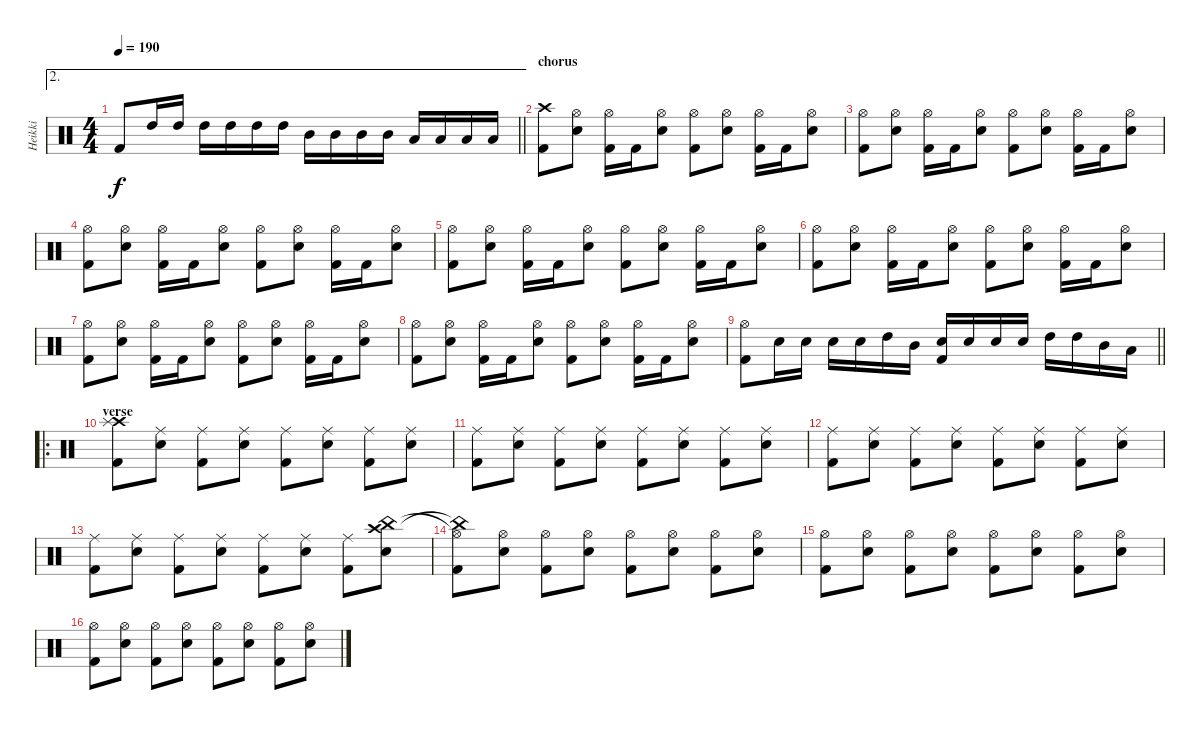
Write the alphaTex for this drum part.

\track ("Heikki" "Heikki") {instrument percussion}
\staff {score}
\articulation defaults
\ae 2
\ts (4 4)
\tempo 190
\clef neutral
\barLineRight lightlight
\ks c "Kick (hit) 2".8{dy f} "High Tom (hit)".16 "High Tom (hit)".16 "High Tom (hit)".16 "High Tom (hit)".16 "High Tom (hit)".16 "High Tom (hit)".16 "Mid Tom (hit)".16 "Mid Tom (hit)".16 "Mid Tom (hit)".16 "Mid Tom (hit)".16 "Low Tom (hit)".16 "Low Tom (hit)".16 "Low Tom (hit)".16 "Low Tom (hit)".16
|
\section ("" "chorus")
("Crash high (hit)" "Kick (hit) 2").8 ("Hi-Hat (open)" "Electric Snare (hit)").8 ("Hi-Hat (open)" "Kick (hit) 2").16 "Kick (hit) 2".16 ("Hi-Hat (open)" "Electric Snare (hit)").8 ("Hi-Hat (open)" "Kick (hit) 2").8 ("Hi-Hat (open)" "Electric Snare (hit)").8 ("Hi-Hat (open)" "Kick (hit) 2").16 "Kick (hit) 2".16 ("Hi-Hat (open)" "Electric Snare (hit)").8 |
("Hi-Hat (open)" "Kick (hit) 2").8 ("Hi-Hat (open)" "Electric Snare (hit)").8 ("Hi-Hat (open)" "Kick (hit) 2").16 "Kick (hit) 2".16 ("Hi-Hat (open)" "Electric Snare (hit)").8 ("Hi-Hat (open)" "Kick (hit) 2").8 ("Hi-Hat (open)" "Electric Snare (hit)").8 ("Hi-Hat (open)" "Kick (hit) 2").16 "Kick (hit) 2".16 ("Hi-Hat (open)" "Electric Snare (hit)").8 |
("Hi-Hat (open)" "Kick (hit) 2").8 ("Hi-Hat (open)" "Electric Snare (hit)").8 ("Hi-Hat (open)" "Kick (hit) 2").16 "Kick (hit) 2".16 ("Hi-Hat (open)" "Electric Snare (hit)").8 ("Hi-Hat (open)" "Kick (hit) 2").8 ("Hi-Hat (open)" "Electric Snare (hit)").8 ("Hi-Hat (open)" "Kick (hit) 2").16 "Kick (hit) 2".16 ("Hi-Hat (open)" "Electric Snare (hit)").8 |
("Hi-Hat (open)" "Kick (hit) 2").8 ("Hi-Hat (open)" "Electric Snare (hit)").8 ("Hi-Hat (open)" "Kick (hit) 2").16 "Kick (hit) 2".16 ("Hi-Hat (open)" "Electric Snare (hit)").8 ("Hi-Hat (open)" "Kick (hit) 2").8 ("Hi-Hat (open)" "Electric Snare (hit)").8 ("Hi-Hat (open)" "Kick (hit) 2").16 "Kick (hit) 2".16 ("Hi-Hat (open)" "Electric Snare (hit)").8 |
("Hi-Hat (open)" "Kick (hit) 2").8 ("Hi-Hat (open)" "Electric Snare (hit)").8 ("Hi-Hat (open)" "Kick (hit) 2").16 "Kick (hit) 2".16 ("Hi-Hat (open)" "Electric Snare (hit)").8 ("Hi-Hat (open)" "Kick (hit) 2").8 ("Hi-Hat (open)" "Electric Snare (hit)").8 ("Hi-Hat (open)" "Kick (hit) 2").16 "Kick (hit) 2".16 ("Hi-Hat (open)" "Electric Snare (hit)").8 |
("Hi-Hat (open)" "Kick (hit) 2").8 ("Hi-Hat (open)" "Electric Snare (hit)").8 ("Hi-Hat (open)" "Kick (hit) 2").16 "Kick (hit) 2".16 ("Hi-Hat (open)" "Electric Snare (hit)").8 ("Hi-Hat (open)" "Kick (hit) 2").8 ("Hi-Hat (open)" "Electric Snare (hit)").8 ("Hi-Hat (open)" "Kick (hit) 2").16 "Kick (hit) 2".16 ("Hi-Hat (open)" "Electric Snare (hit)").8 |
("Hi-Hat (open)" "Kick (hit) 2").8 ("Hi-Hat (open)" "Electric Snare (hit)").8 ("Hi-Hat (open)" "Kick (hit) 2").16 "Kick (hit) 2".16 ("Hi-Hat (open)" "Electric Snare (hit)").8 ("Hi-Hat (open)" "Kick (hit) 2").8 ("Hi-Hat (open)" "Electric Snare (hit)").8 ("Hi-Hat (open)" "Kick (hit) 2").16 "Kick (hit) 2".16 ("Hi-Hat (open)" "Electric Snare (hit)").8 |
\barLineRight lightlight
("Hi-Hat (open)" "Kick (hit) 2").8 "Electric Snare (hit)".16 "Electric Snare (hit)".16 "Electric Snare (hit)".16 "Electric Snare (hit)".16 "High Tom (hit)".16 "Mid Tom (hit)".16 ("Electric Snare (hit)" "Kick (hit) 2").16 "Electric Snare (hit)".16 "Electric Snare (hit)".16 "Electric Snare (hit)".16 "High Tom (hit)".16 "High Tom (hit)".16 "Mid Tom (hit)".16 "Low Tom (hit)".16 |
\ro
\section ("" "verse")
("Crash high (hit)" "Splash (hit)" "Kick (hit) 2").8 ("Ride (middle)" "Electric Snare (hit)").8 ("Ride (middle)" "Kick (hit) 2").8 ("Ride (middle)" "Electric Snare (hit)").8 ("Ride (middle)" "Kick (hit) 2").8 ("Ride (middle)" "Electric Snare (hit)").8 ("Ride (middle)" "Kick (hit) 2").8 ("Ride (middle)" "Electric Snare (hit)").8 |
("Ride (middle)" "Kick (hit) 2").8 ("Ride (middle)" "Electric Snare (hit)").8 ("Ride (middle)" "Kick (hit) 2").8 ("Ride (middle)" "Electric Snare (hit)").8 ("Ride (middle)" "Kick (hit) 2").8 ("Ride (middle)" "Electric Snare (hit)").8 ("Ride (middle)" "Kick (hit) 2").8 ("Ride (middle)" "Electric Snare (hit)").8 |
("Ride (middle)" "Kick (hit) 2").8 ("Ride (middle)" "Electric Snare (hit)").8 ("Ride (middle)" "Kick (hit) 2").8 ("Ride (middle)" "Electric Snare (hit)").8 ("Ride (middle)" "Kick (hit) 2").8 ("Ride (middle)" "Electric Snare (hit)").8 ("Ride (middle)" "Kick (hit) 2").8 ("Ride (middle)" "Electric Snare (hit)").8 |
("Ride (middle)" "Kick (hit) 2").8 ("Ride (middle)" "Electric Snare (hit)").8 ("Ride (middle)" "Kick (hit) 2").8 ("Ride (middle)" "Electric Snare (hit)").8 ("Ride (middle)" "Kick (hit) 2").8 ("Ride (middle)" "Electric Snare (hit)").8 ("Ride (middle)" "Kick (hit) 2").8 ("China (hit)" "Crash high (hit)" "Electric Snare (hit)").8 |
("Hi-Hat (open)"{t} "China (hit)"{t} "Kick (hit) 2").8 ("Hi-Hat (open)" "Electric Snare (hit)").8 ("Hi-Hat (open)" "Kick (hit) 2").8 ("Hi-Hat (open)" "Electric Snare (hit)").8 ("Hi-Hat (open)" "Kick (hit) 2").8 ("Hi-Hat (open)" "Electric Snare (hit)").8 ("Hi-Hat (open)" "Kick (hit) 2").8 ("Hi-Hat (open)" "Electric Snare (hit)").8 |
("Hi-Hat (open)" "Kick (hit) 2").8 ("Hi-Hat (open)" "Electric Snare (hit)").8 ("Hi-Hat (open)" "Kick (hit) 2").8 ("Hi-Hat (open)" "Electric Snare (hit)").8 ("Hi-Hat (open)" "Kick (hit) 2").8 ("Hi-Hat (open)" "Electric Snare (hit)").8 ("Hi-Hat (open)" "Kick (hit) 2").8 ("Hi-Hat (open)" "Electric Snare (hit)").8 |
("Hi-Hat (open)" "Kick (hit) 2").8 ("Hi-Hat (open)" "Electric Snare (hit)").8 ("Hi-Hat (open)" "Kick (hit) 2").8 ("Hi-Hat (open)" "Electric Snare (hit)").8 ("Hi-Hat (open)" "Kick (hit) 2").8 ("Hi-Hat (open)" "Electric Snare (hit)").8 ("Hi-Hat (open)" "Kick (hit) 2").8 ("Hi-Hat (open)" "Electric Snare (hit)").8
